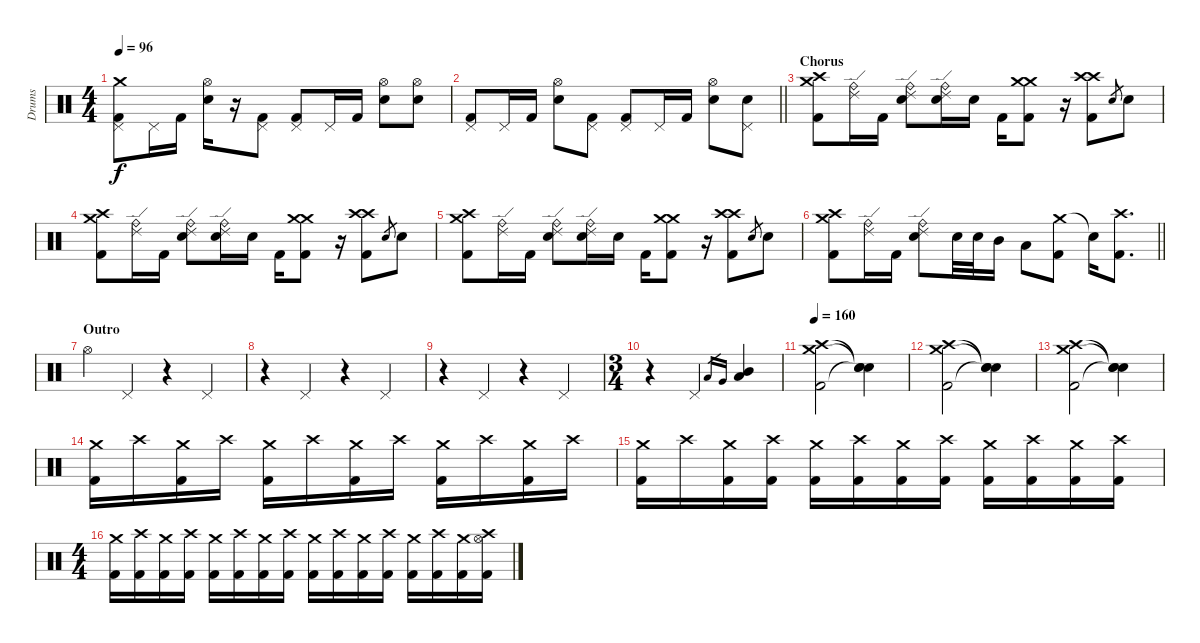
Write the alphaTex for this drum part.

\track ("Drums" "Drums") {instrument percussion}
\staff {score}
\articulation defaults
\ts (4 4)
\tempo 96
\clef neutral
\ks c
("Crash medium (hit)" "Pedal Hi-Hat (hit)" "Kick (hit) 2").8{dy f} "Pedal Hi-Hat (hit)".16 "Kick (hit) 2".16 ("Electric Snare (hit)" "Hi-Hat (open)").16 r.16 ("Pedal Hi-Hat (hit)" "Kick (hit) 2").8 ("Pedal Hi-Hat (hit)" "Kick (hit) 2").8 "Pedal Hi-Hat (hit)".16 "Kick (hit) 2".16 ("Electric Snare (hit)" "Hi-Hat (open)").8 ("Electric Snare (hit)" "Hi-Hat (open)").8 |
\barLineRight lightlight
("Pedal Hi-Hat (hit)" "Kick (hit) 2").8 "Pedal Hi-Hat (hit)".16 "Kick (hit) 2".16 ("Electric Snare (hit)" "Hi-Hat (open)").8 ("Pedal Hi-Hat (hit)" "Kick (hit) 2").8 ("Pedal Hi-Hat (hit)" "Kick (hit) 2").8 "Pedal Hi-Hat (hit)".16 "Kick (hit) 2".16 ("Electric Snare (hit)" "Hi-Hat (open)").8 ("Electric Snare (hit)" "Pedal Hi-Hat (hit)").8 |
\section ("" "Chorus")
("Crash medium (hit)" "Crash high (hit)" "Kick (hit) 2").8 ("Ride (edge) 2" "Ride (bell)").16 "Kick (hit) 2".16 ("Ride (edge) 2" "Ride (bell)" "Electric Snare (hit)").8 ("Ride (edge) 2" "Ride (bell)" "Electric Snare (hit)").16 "Electric Snare (hit)".16 "Kick (hit) 2".16 ("Crash medium (hit)" "Crash medium (hit)" "Kick (hit) 2").8 r.16 ("Crash high (hit)" "Crash high (hit)" "Kick (hit) 2").8 "Electric Snare (hit)".8{gr} "Electric Snare (hit)".8 |
("Crash medium (hit)" "Crash high (hit)" "Kick (hit) 2").8 ("Ride (edge) 2" "Ride (bell)").16 "Kick (hit) 2".16 ("Ride (edge) 2" "Ride (bell)" "Electric Snare (hit)").8 ("Ride (edge) 2" "Ride (bell)" "Electric Snare (hit)").16 "Electric Snare (hit)".16 "Kick (hit) 2".16 ("Crash medium (hit)" "Crash medium (hit)" "Kick (hit) 2").8 r.16 ("Crash high (hit)" "Crash high (hit)" "Kick (hit) 2").8 "Electric Snare (hit)".8{gr} "Electric Snare (hit)".8 |
("Crash medium (hit)" "Crash high (hit)" "Kick (hit) 2").8 ("Ride (edge) 2" "Ride (bell)").16 "Kick (hit) 2".16 ("Ride (edge) 2" "Ride (bell)" "Electric Snare (hit)").8 ("Ride (edge) 2" "Ride (bell)" "Electric Snare (hit)").16 "Electric Snare (hit)".16 "Kick (hit) 2".16 ("Crash medium (hit)" "Crash medium (hit)" "Kick (hit) 2").8 r.16 ("Crash high (hit)" "Crash high (hit)" "Kick (hit) 2").8 "Electric Snare (hit)".8{gr} "Electric Snare (hit)".8 |
\barLineRight lightlight
("Crash medium (hit)" "Crash high (hit)" "Kick (hit) 2").8 ("Ride (edge) 2" "Ride (bell)").16 "Kick (hit) 2".16 ("Ride (edge) 2" "Ride (bell)" "Electric Snare (hit)").8 "Electric Snare (hit)".32 "Electric Snare (hit)".32 "Mid Tom (hit)".16 "Low Tom (hit)".8 ("Crash medium (hit)" "Kick (hit) 2").8 "Snare (hit)"{t}.16 ("Crash high (hit)" "Kick (hit) 2").8{d} |
\section ("" "Outro")
"Hi-Hat (open)".4 "Pedal Hi-Hat (hit)".4 r.4 "Pedal Hi-Hat (hit)".4 |
r.4 "Pedal Hi-Hat (hit)".4 r.4 "Pedal Hi-Hat (hit)".4 |
r.4 "Pedal Hi-Hat (hit)".4 r.4 "Pedal Hi-Hat (hit)".4 |
\ts (3 4)
r.4 "Pedal Hi-Hat (hit)".4 "Low Floor Tom (hit)".16{gr} "Very Low Tom (hit)".16{gr} ("Mid Tom (hit)" "Low Tom (hit)").4 |
\tempo 160
("Crash medium (hit)" "Crash high (hit)" "Kick (hit) 2").2 ("Snare (hit)"{t} "Snare (hit)"{t} "Snare (hit)"{t}).4 |
("Crash medium (hit)" "Crash high (hit)" "Kick (hit) 2").2 ("Snare (hit)"{t} "Snare (hit)"{t} "Snare (hit)"{t}).4 |
("Crash medium (hit)" "Crash high (hit)" "Kick (hit) 2").2 ("Snare (hit)"{t} "Snare (hit)"{t} "Snare (hit)"{t}).4 |
("Crash medium (hit)" "Kick (hit) 2").16 "Crash high (hit)".16 ("Crash medium (hit)" "Kick (hit) 2").16 "Crash high (hit)".16 ("Crash medium (hit)" "Kick (hit) 2").16 "Crash high (hit)".16 ("Crash medium (hit)" "Kick (hit) 2").16 "Crash high (hit)".16 ("Crash medium (hit)" "Kick (hit) 2").16 "Crash high (hit)".16 ("Crash medium (hit)" "Kick (hit) 2").16 "Crash high (hit)".16 |
("Crash medium (hit)" "Kick (hit) 2").16 "Crash high (hit)".16 ("Crash medium (hit)" "Kick (hit) 2").16 ("Crash high (hit)" "Kick (hit) 2").16 ("Crash medium (hit)" "Kick (hit) 2").16 ("Crash high (hit)" "Kick (hit) 2").16 ("Crash medium (hit)" "Kick (hit) 2").16 ("Crash high (hit)" "Kick (hit) 2").16 ("Crash medium (hit)" "Kick (hit) 2").16 ("Crash high (hit)" "Kick (hit) 2").16 ("Crash medium (hit)" "Kick (hit) 2").16 ("Crash high (hit)" "Kick (hit) 2").16 |
\ts (4 4)
("Crash medium (hit)" "Kick (hit) 2").16 ("Crash high (hit)" "Kick (hit) 2").16 ("Crash medium (hit)" "Kick (hit) 2").16 ("Crash high (hit)" "Kick (hit) 2").16 ("Crash medium (hit)" "Kick (hit) 2").16 ("Crash high (hit)" "Kick (hit) 2").16 ("Crash medium (hit)" "Kick (hit) 2").16 ("Crash high (hit)" "Kick (hit) 2").16 ("Crash medium (hit)" "Kick (hit) 2").16 ("Crash high (hit)" "Kick (hit) 2").16 ("Crash medium (hit)" "Kick (hit) 2").16 ("Crash high (hit)" "Kick (hit) 2").16 ("Crash medium (hit)" "Kick (hit) 2").16 ("Crash high (hit)" "Kick (hit) 2").16 ("Crash medium (hit)" "Kick (hit) 2").16 ("Crash high (hit)" "Hi-Hat (open)" "Kick (hit) 2").16
